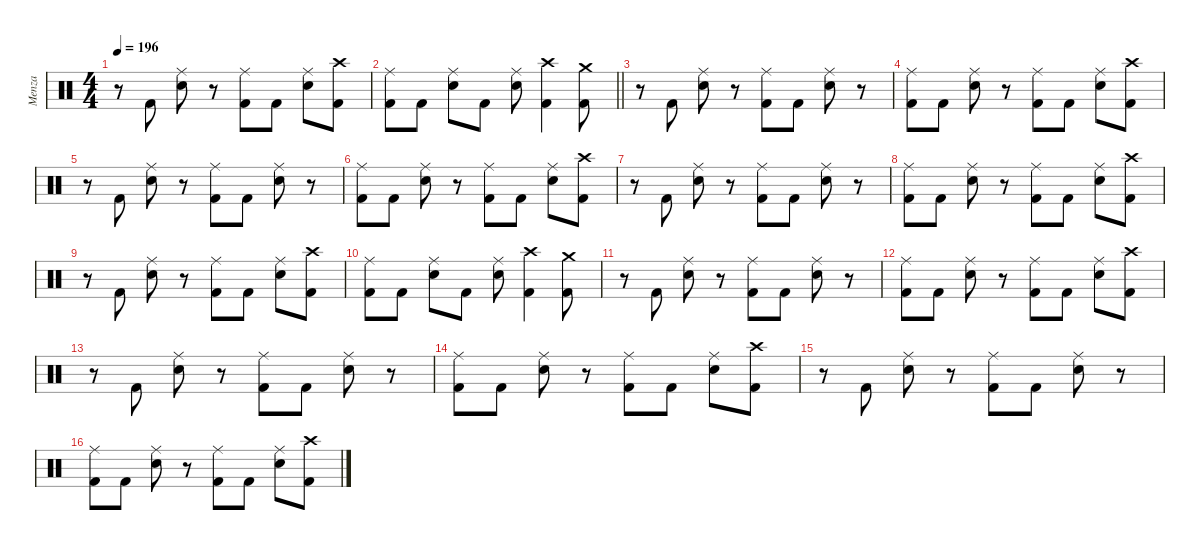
\defaultSystemsLayout 4
\hideDynamics
\bracketExtendMode nobrackets
\firstSystemTrackNameMode fullname
\otherSystemsTrackNameOrientation horizontal
\track ("Menza" "drm.") {instrument percussion}
\staff {score}
\articulation defaults
\ts (4 4)
\tempo 196
\clef neutral
\ks c
r.8{dy fff beam Down} "Kick (hit) 2".8{beam Up} ("Ride (middle)" "Snare (hit) 2").8{dy ff beam Down} r.8{beam Down} ("Ride (middle)" "Kick (hit) 2").8{beam Down} "Kick (hit) 2".8{dy fff beam Down} ("Ride (middle)" "Snare (hit) 2").8{dy ff beam Down} ("Crash high (hit)" "Kick (hit) 2").8{beam Down} |
\barLineRight lightlight
("Ride (middle)" "Kick (hit) 2").8{beam Down} "Kick (hit) 2".8{dy fff beam Down} ("Ride (middle)" "Snare (hit) 2").8{dy ff beam Down} "Kick (hit) 2".8{dy fff beam Down} ("Ride (middle)" "Snare (hit) 2").8{dy ff beam Down} ("Crash high (hit)" "Kick (hit) 2").4{beam Down} ("Crash medium (hit)" "Kick (hit) 2").8{dy fff beam Down} |
r.8{beam Down} "Kick (hit) 2".8{beam Up} ("Ride (middle)" "Snare (hit) 2").8{dy ff beam Down} r.8{beam Down} ("Ride (middle)" "Kick (hit) 2").8{beam Down} "Kick (hit) 2".8{dy fff beam Down} ("Ride (middle)" "Snare (hit) 2").8{dy ff beam Down} r.8{beam Down} |
("Ride (middle)" "Kick (hit) 2").8{beam Down} "Kick (hit) 2".8{dy fff beam Down} ("Ride (middle)" "Snare (hit) 2").8{dy ff beam Down} r.8{beam Down} ("Ride (middle)" "Kick (hit) 2").8{beam Down} "Kick (hit) 2".8{dy fff beam Down} ("Ride (middle)" "Snare (hit) 2").8{dy ff beam Down} ("Crash high (hit)" "Kick (hit) 2").8{dy fff beam Down} |
r.8{beam Down} "Kick (hit) 2".8{beam Up} ("Ride (middle)" "Snare (hit) 2").8{dy ff beam Down} r.8{beam Down} ("Ride (middle)" "Kick (hit) 2").8{beam Down} "Kick (hit) 2".8{dy fff beam Down} ("Ride (middle)" "Snare (hit) 2").8{dy ff beam Down} r.8{beam Down} |
("Ride (middle)" "Kick (hit) 2").8{beam Down} "Kick (hit) 2".8{dy fff beam Down} ("Ride (middle)" "Snare (hit) 2").8{dy ff beam Down} r.8{beam Down} ("Ride (middle)" "Kick (hit) 2").8{beam Down} "Kick (hit) 2".8{dy fff beam Down} ("Ride (middle)" "Snare (hit) 2").8{dy ff beam Down} ("Crash high (hit)" "Kick (hit) 2").8{dy fff beam Down} |
r.8{beam Down} "Kick (hit) 2".8{beam Up} ("Ride (middle)" "Snare (hit) 2").8{dy ff beam Down} r.8{beam Down} ("Ride (middle)" "Kick (hit) 2").8{beam Down} "Kick (hit) 2".8{dy fff beam Down} ("Ride (middle)" "Snare (hit) 2").8{dy ff beam Down} r.8{beam Down} |
("Ride (middle)" "Kick (hit) 2").8{beam Down} "Kick (hit) 2".8{dy fff beam Down} ("Ride (middle)" "Snare (hit) 2").8{dy ff beam Down} r.8{beam Down} ("Ride (middle)" "Kick (hit) 2").8{beam Down} "Kick (hit) 2".8{dy fff beam Down} ("Ride (middle)" "Snare (hit) 2").8{dy ff beam Down} ("Crash high (hit)" "Kick (hit) 2").8{dy fff beam Down} |
r.8{beam Down} "Kick (hit) 2".8{beam Up} ("Ride (middle)" "Snare (hit) 2").8{dy ff beam Down} r.8{beam Down} ("Ride (middle)" "Kick (hit) 2").8{beam Down} "Kick (hit) 2".8{dy fff beam Down} ("Ride (middle)" "Snare (hit) 2").8{dy ff beam Down} ("Crash high (hit)" "Kick (hit) 2").8{beam Down} |
("Ride (middle)" "Kick (hit) 2").8{beam Down} "Kick (hit) 2".8{dy fff beam Down} ("Ride (middle)" "Snare (hit) 2").8{dy ff beam Down} "Kick (hit) 2".8{dy fff beam Down} ("Ride (middle)" "Snare (hit) 2").8{dy ff beam Down} ("Crash high (hit)" "Kick (hit) 2").4{beam Down} ("Crash medium (hit)" "Kick (hit) 2").8{dy fff beam Down} |
r.8{beam Down} "Kick (hit) 2".8{beam Up} ("Ride (middle)" "Snare (hit) 2").8{dy ff beam Down} r.8{beam Down} ("Ride (middle)" "Kick (hit) 2").8{beam Down} "Kick (hit) 2".8{dy fff beam Down} ("Ride (middle)" "Snare (hit) 2").8{dy ff beam Down} r.8{beam Down} |
("Ride (middle)" "Kick (hit) 2").8{beam Down} "Kick (hit) 2".8{dy fff beam Down} ("Ride (middle)" "Snare (hit) 2").8{dy ff beam Down} r.8{beam Down} ("Ride (middle)" "Kick (hit) 2").8{beam Down} "Kick (hit) 2".8{dy fff beam Down} ("Ride (middle)" "Snare (hit) 2").8{dy ff beam Down} ("Crash high (hit)" "Kick (hit) 2").8{dy fff beam Down} |
r.8{beam Down} "Kick (hit) 2".8{beam Up} ("Ride (middle)" "Snare (hit) 2").8{dy ff beam Down} r.8{beam Down} ("Ride (middle)" "Kick (hit) 2").8{beam Down} "Kick (hit) 2".8{dy fff beam Down} ("Ride (middle)" "Snare (hit) 2").8{dy ff beam Down} r.8{beam Down} |
("Ride (middle)" "Kick (hit) 2").8{beam Down} "Kick (hit) 2".8{dy fff beam Down} ("Ride (middle)" "Snare (hit) 2").8{dy ff beam Down} r.8{beam Down} ("Ride (middle)" "Kick (hit) 2").8{beam Down} "Kick (hit) 2".8{dy fff beam Down} ("Ride (middle)" "Snare (hit) 2").8{dy ff beam Down} ("Crash high (hit)" "Kick (hit) 2").8{dy fff beam Down} |
r.8{beam Down} "Kick (hit) 2".8{beam Up} ("Ride (middle)" "Snare (hit) 2").8{dy ff beam Down} r.8{beam Down} ("Ride (middle)" "Kick (hit) 2").8{beam Down} "Kick (hit) 2".8{dy fff beam Down} ("Ride (middle)" "Snare (hit) 2").8{dy ff beam Down} r.8{beam Down} |
("Ride (middle)" "Kick (hit) 2").8{beam Down} "Kick (hit) 2".8{dy fff beam Down} ("Ride (middle)" "Snare (hit) 2").8{dy ff beam Down} r.8{beam Down} ("Ride (middle)" "Kick (hit) 2").8{beam Down} "Kick (hit) 2".8{dy fff beam Down} ("Ride (middle)" "Snare (hit) 2").8{dy ff beam Down} ("Crash high (hit)" "Kick (hit) 2").8{dy fff beam Down}
